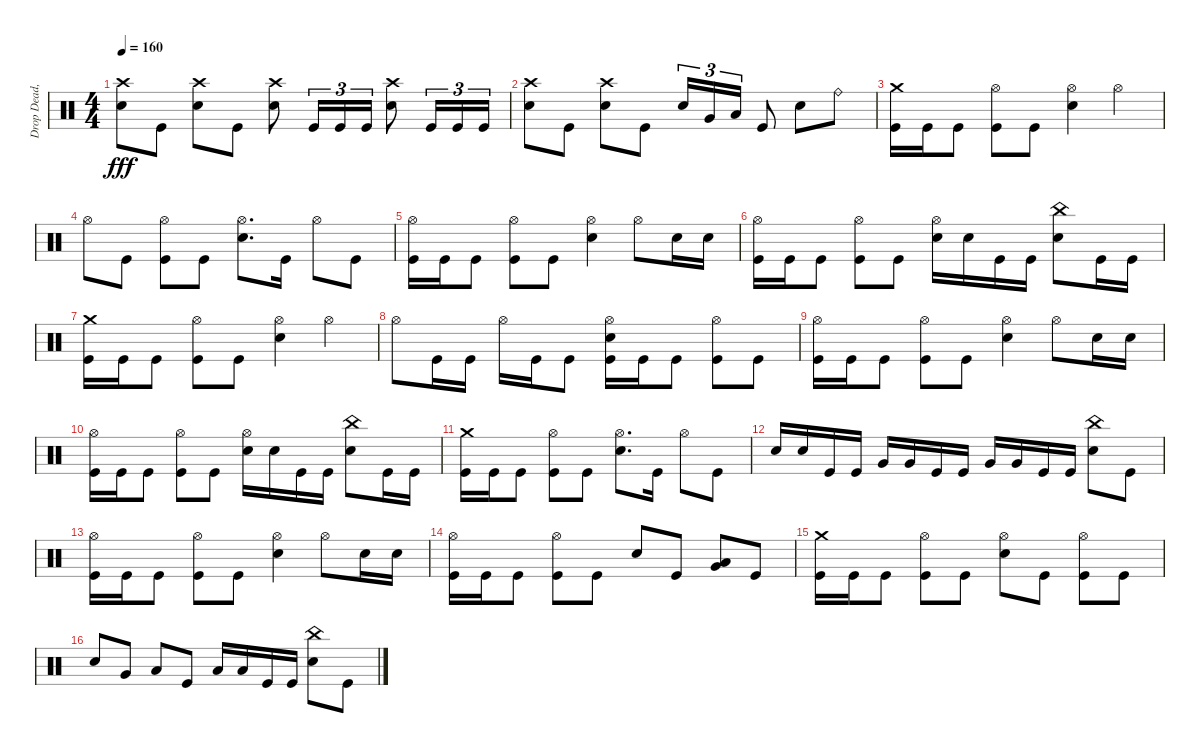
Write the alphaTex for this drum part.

\track ("Drop Dead, Johnny" "Drop Dead,") {instrument percussion}
\staff {score}
\articulation defaults
\ts (4 4)
\tempo 160
\clef neutral
\ks c
("Crash high (hit)" "Electric Snare (hit)").8{dy fff} "Kick (hit)".8 ("Crash high (hit)" "Electric Snare (hit)").8 "Kick (hit)".8 ("Crash high (hit)" "Electric Snare (hit)").8 "Kick (hit)".16{tu (3 2)} "Kick (hit)".16{tu (3 2)} "Kick (hit)".16{tu (3 2)} ("Crash high (hit)" "Electric Snare (hit)").8 "Kick (hit)".16{tu (3 2)} "Kick (hit)".16{tu (3 2)} "Kick (hit)".16{tu (3 2)} |
("Crash high (hit)" "Electric Snare (hit)").8 "Kick (hit)".8 ("Crash high (hit)" "Electric Snare (hit)").8 "Kick (hit)".8 "Electric Snare (hit)".16{tu (3 2)} "Very Low Tom (hit)".16{tu (3 2)} "Low Floor Tom (hit)".16{tu (3 2)} "Kick (hit)".8 "Electric Snare (hit)".8 "Ride (bell)".8 |
("Crash medium (hit)" "Kick (hit)").16 "Kick (hit)".16 "Kick (hit)".8 ("Hi-Hat (open)" "Kick (hit)").8 "Kick (hit)".8 ("Hi-Hat (open)" "Electric Snare (hit)").4 "Hi-Hat (open)".4 |
"Hi-Hat (open)".8 "Kick (hit)".8 ("Hi-Hat (open)" "Kick (hit)").8 "Kick (hit)".8 ("Hi-Hat (open)" "Electric Snare (hit)").8{d} "Kick (hit)".16 "Hi-Hat (open)".8 "Kick (hit)".8 |
("Hi-Hat (open)" "Kick (hit)").16 "Kick (hit)".16 "Kick (hit)".8 ("Hi-Hat (open)" "Kick (hit)").8 "Kick (hit)".8 ("Hi-Hat (open)" "Electric Snare (hit)").4 "Hi-Hat (open)".8 "Electric Snare (hit)".16 "Electric Snare (hit)".16 |
("Hi-Hat (open)" "Kick (hit)").16 "Kick (hit)".16 "Kick (hit)".8 ("Hi-Hat (open)" "Kick (hit)").8 "Kick (hit)".8 ("Hi-Hat (open)" "Electric Snare (hit)").16 "Electric Snare (hit)".16 "Kick (hit)".16 "Kick (hit)".16 ("China (hit)" "Electric Snare (hit)").8 "Kick (hit)".16 "Kick (hit)".16 |
("Crash medium (hit)" "Kick (hit)").16 "Kick (hit)".16 "Kick (hit)".8 ("Hi-Hat (open)" "Kick (hit)").8 "Kick (hit)".8 ("Hi-Hat (open)" "Electric Snare (hit)").4 "Hi-Hat (open)".4 |
"Hi-Hat (open)".8 "Kick (hit)".16 "Kick (hit)".16 "Hi-Hat (open)".16 "Kick (hit)".16 "Kick (hit)".8 ("Hi-Hat (open)" "Electric Snare (hit)" "Kick (hit)").16 "Kick (hit)".16 "Kick (hit)".8 ("Hi-Hat (open)" "Kick (hit)").8 "Kick (hit)".8 |
("Hi-Hat (open)" "Kick (hit)").16 "Kick (hit)".16 "Kick (hit)".8 ("Hi-Hat (open)" "Kick (hit)").8 "Kick (hit)".8 ("Hi-Hat (open)" "Electric Snare (hit)").4 "Hi-Hat (open)".8 "Electric Snare (hit)".16 "Electric Snare (hit)".16 |
("Hi-Hat (open)" "Kick (hit)").16 "Kick (hit)".16 "Kick (hit)".8 ("Hi-Hat (open)" "Kick (hit)").8 "Kick (hit)".8 ("Hi-Hat (open)" "Electric Snare (hit)").16 "Electric Snare (hit)".16 "Kick (hit)".16 "Kick (hit)".16 ("China (hit)" "Electric Snare (hit)").8 "Kick (hit)".16 "Kick (hit)".16 |
("Crash medium (hit)" "Kick (hit)").16 "Kick (hit)".16 "Kick (hit)".8 ("Hi-Hat (open)" "Kick (hit)").8 "Kick (hit)".8 ("Hi-Hat (open)" "Electric Snare (hit)").8{d} "Kick (hit)".16 "Hi-Hat (open)".8 "Kick (hit)".8 |
"Electric Snare (hit)".16 "Electric Snare (hit)".16 "Kick (hit)".16 "Kick (hit)".16 "Very Low Tom (hit)".16 "Very Low Tom (hit)".16 "Kick (hit)".16 "Kick (hit)".16 "Very Low Tom (hit)".16 "Very Low Tom (hit)".16 "Kick (hit)".16 "Kick (hit)".16 ("China (hit)" "Electric Snare (hit)").8 "Kick (hit)".8 |
("Hi-Hat (open)" "Kick (hit)").16 "Kick (hit)".16 "Kick (hit)".8 ("Hi-Hat (open)" "Kick (hit)").8 "Kick (hit)".8 ("Hi-Hat (open)" "Electric Snare (hit)").4 "Hi-Hat (open)".8 "Electric Snare (hit)".16 "Electric Snare (hit)".16 |
("Hi-Hat (open)" "Kick (hit)").16 "Kick (hit)".16 "Kick (hit)".8 ("Hi-Hat (open)" "Kick (hit)").8 "Kick (hit)".8 "Electric Snare (hit)".8 "Kick (hit)".8 ("Very Low Tom (hit)" "Low Floor Tom (hit)").8 "Kick (hit)".8 |
("Crash medium (hit)" "Kick (hit)").16 "Kick (hit)".16 "Kick (hit)".8 ("Hi-Hat (open)" "Kick (hit)").8 "Kick (hit)".8 ("Hi-Hat (open)" "Electric Snare (hit)").8 "Kick (hit)".8 ("Hi-Hat (open)" "Kick (hit)").8 "Kick (hit)".8 |
"Electric Snare (hit)".8 "Very Low Tom (hit)".8 "Low Floor Tom (hit)".8 "Kick (hit)".8 "Low Floor Tom (hit)".16 "Low Floor Tom (hit)".16 "Kick (hit)".16 "Kick (hit)".16 ("China (hit)" "Electric Snare (hit)").8 "Kick (hit)".8
